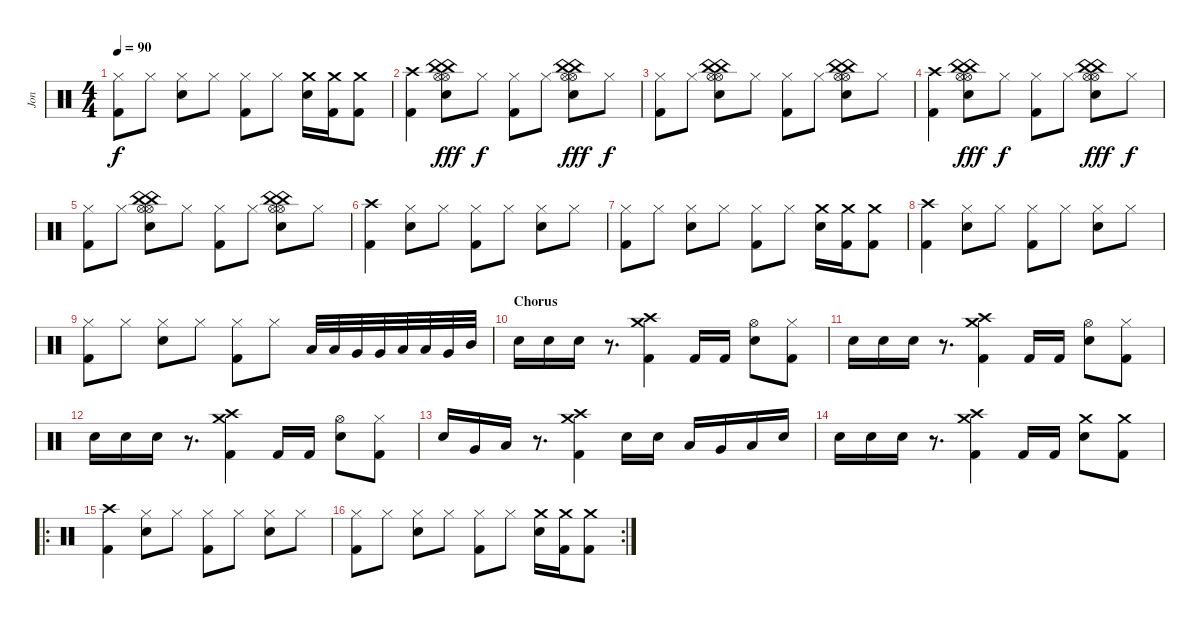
\track ("Jon" "Jon") {instrument percussion}
\staff {score}
\articulation defaults
\ts (4 4)
\tempo 90
\clef neutral
\ks c
("Hi-Hat (closed)" "Kick (hit) 2").8{dy f} "Hi-Hat (closed)".8 ("Hi-Hat (closed)" "Snare (hit) 2").8 "Hi-Hat (closed)".8 ("Hi-Hat (closed)" "Kick (hit) 2").8 "Hi-Hat (closed)".8 ("Crash medium (hit)" "Snare (hit) 2").16 ("Crash medium (hit)" "Kick (hit) 2").16 ("Crash medium (hit)" "Kick (hit) 2").8 |
("Crash high (hit)" "Kick (hit) 2").4 ("China (hit)" "Hi-Hat (open)" "China (hit)" "Hi-Hat (open)" "Snare (hit) 2").8{dy fff} "Hi-Hat (closed)".8{dy f} ("Hi-Hat (closed)" "Kick (hit) 2").8 "Hi-Hat (closed)".8 ("China (hit)" "Hi-Hat (open)" "China (hit)" "Hi-Hat (open)" "Snare (hit) 2").8{dy fff} "Hi-Hat (closed)".8{dy f} |
("Hi-Hat (closed)" "Kick (hit) 2").8 "Hi-Hat (closed)".8 ("Hi-Hat (open)" "China (hit)" "China (hit)" "Hi-Hat (open)" "Snare (hit) 2").8 "Hi-Hat (closed)".8 ("Hi-Hat (closed)" "Kick (hit) 2").8 "Hi-Hat (closed)".8 ("Hi-Hat (open)" "China (hit)" "China (hit)" "Hi-Hat (open)" "Snare (hit) 2").8 "Hi-Hat (closed)".8 |
("Crash high (hit)" "Kick (hit) 2").4 ("China (hit)" "Hi-Hat (open)" "China (hit)" "Hi-Hat (open)" "Snare (hit) 2").8{dy fff} "Hi-Hat (closed)".8{dy f} ("Hi-Hat (closed)" "Kick (hit) 2").8 "Hi-Hat (closed)".8 ("China (hit)" "Hi-Hat (open)" "China (hit)" "Hi-Hat (open)" "Snare (hit) 2").8{dy fff} "Hi-Hat (closed)".8{dy f} |
("Hi-Hat (closed)" "Kick (hit) 2").8 "Hi-Hat (closed)".8 ("Hi-Hat (open)" "China (hit)" "China (hit)" "Hi-Hat (open)" "Snare (hit) 2").8 "Hi-Hat (closed)".8 ("Hi-Hat (closed)" "Kick (hit) 2").8 "Hi-Hat (closed)".8 ("Hi-Hat (open)" "China (hit)" "China (hit)" "Hi-Hat (open)" "Snare (hit) 2").8 "Hi-Hat (closed)".8 |
("Crash high (hit)" "Kick (hit) 2").4 ("Hi-Hat (closed)" "Snare (hit) 2").8 "Hi-Hat (closed)".8 ("Hi-Hat (closed)" "Kick (hit) 2").8 "Hi-Hat (closed)".8 ("Hi-Hat (closed)" "Snare (hit) 2").8 "Hi-Hat (closed)".8 |
("Hi-Hat (closed)" "Kick (hit) 2").8 "Hi-Hat (closed)".8 ("Hi-Hat (closed)" "Snare (hit) 2").8 "Hi-Hat (closed)".8 ("Hi-Hat (closed)" "Kick (hit) 2").8 "Hi-Hat (closed)".8 ("Crash medium (hit)" "Snare (hit) 2").16 ("Crash medium (hit)" "Kick (hit) 2").16 ("Crash medium (hit)" "Kick (hit) 2").8 |
("Crash high (hit)" "Kick (hit) 2").4 ("Hi-Hat (closed)" "Snare (hit) 2").8 "Hi-Hat (closed)".8 ("Hi-Hat (closed)" "Kick (hit) 2").8 "Hi-Hat (closed)".8 ("Hi-Hat (closed)" "Snare (hit) 2").8 "Hi-Hat (closed)".8 |
("Hi-Hat (closed)" "Kick (hit) 2").8 "Hi-Hat (closed)".8 ("Hi-Hat (closed)" "Snare (hit) 2").8 "Hi-Hat (closed)".8 ("Hi-Hat (closed)" "Kick (hit) 2").8 "Hi-Hat (closed)".8 "Low Tom (hit)".32 "Low Tom (hit)".32 "Very Low Tom (hit)".32 "Very Low Tom (hit)".32 "Low Floor Tom (hit)".32 "Low Floor Tom (hit)".32 "Very Low Tom (hit)".32 "Mid Tom (hit)".32 |
\section ("" "Chorus")
"Snare (hit) 2".16 "Snare (hit) 2".16 "Snare (hit) 2".16 r.8{d} ("Crash medium (hit)" "Crash high (hit)" "Kick (hit) 2").4 "Kick (hit) 2".16 "Kick (hit) 2".16 ("Hi-Hat (open)" "Snare (hit) 2").8 ("Hi-Hat (closed)" "Kick (hit) 2").8 |
"Snare (hit) 2".16 "Snare (hit) 2".16 "Snare (hit) 2".16 r.8{d} ("Crash medium (hit)" "Crash high (hit)" "Kick (hit) 2").4 "Kick (hit) 2".16 "Kick (hit) 2".16 ("Hi-Hat (open)" "Snare (hit) 2").8 ("Hi-Hat (closed)" "Kick (hit) 2").8 |
"Snare (hit) 2".16 "Snare (hit) 2".16 "Snare (hit) 2".16 r.8{d} ("Crash medium (hit)" "Crash high (hit)" "Kick (hit) 2").4 "Kick (hit) 2".16 "Kick (hit) 2".16 ("Hi-Hat (open)" "Snare (hit) 2").8 ("Hi-Hat (closed)" "Kick (hit) 2").8 |
"Snare (hit) 2".16 "Very Low Tom (hit)".16 "Low Floor Tom (hit)".16 r.8{d} ("Crash medium (hit)" "Crash high (hit)" "Kick (hit) 2").4 "Snare (hit) 2".16 "Snare (hit) 2".16 "Low Tom (hit)".16 "Very Low Tom (hit)".16 "Low Floor Tom (hit)".16 "Snare (hit) 2".16 |
"Snare (hit) 2".16 "Snare (hit) 2".16 "Snare (hit) 2".16 r.8{d} ("Crash medium (hit)" "Crash high (hit)" "Kick (hit) 2").4 "Kick (hit) 2".16 "Kick (hit) 2".16 ("Crash medium (hit)" "Snare (hit) 2").8 ("Crash medium (hit)" "Kick (hit) 2").8 |
\ro
("Crash high (hit)" "Kick (hit) 2").4 ("Hi-Hat (closed)" "Snare (hit) 2").8 "Hi-Hat (closed)".8 ("Hi-Hat (closed)" "Kick (hit) 2").8 "Hi-Hat (closed)".8 ("Hi-Hat (closed)" "Snare (hit) 2").8 "Hi-Hat (closed)".8 |
\rc 2
("Hi-Hat (closed)" "Kick (hit) 2").8 "Hi-Hat (closed)".8 ("Hi-Hat (closed)" "Snare (hit) 2").8 "Hi-Hat (closed)".8 ("Hi-Hat (closed)" "Kick (hit) 2").8 "Hi-Hat (closed)".8 ("Crash medium (hit)" "Snare (hit) 2").16 ("Crash medium (hit)" "Kick (hit) 2").16 ("Crash medium (hit)" "Kick (hit) 2").8
